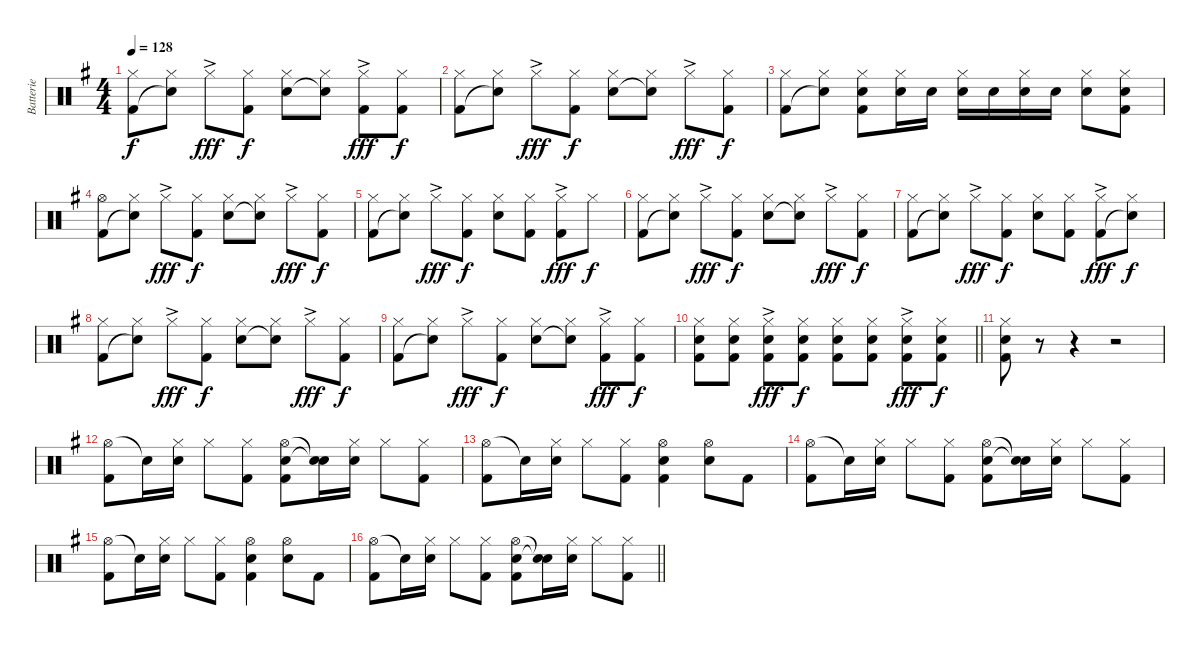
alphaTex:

\track ("Batterie" "Batterie") {instrument percussion}
\staff {score}
\articulation defaults
\ts (4 4)
\tempo 128
\clef neutral
\ks g
("Hi-Hat (closed)" "Kick (hit) 2").8{dy f} ("Hi-Hat (closed)" "Snare (hit)"{t}).8 "Hi-Hat (closed)"{ac}.8{dy fff} ("Hi-Hat (closed)" "Kick (hit) 2").8{dy f} ("Hi-Hat (closed)" "Snare (hit) 2").8 ("Hi-Hat (closed)" "Snare (hit)"{t}).8 ("Hi-Hat (closed)"{ac} "Kick (hit) 2").8{dy fff} ("Hi-Hat (closed)" "Kick (hit) 2").8{dy f} |
("Hi-Hat (closed)" "Kick (hit) 2").8 ("Hi-Hat (closed)" "Snare (hit)"{t}).8 "Hi-Hat (closed)"{ac}.8{dy fff} ("Hi-Hat (closed)" "Kick (hit) 2").8{dy f} ("Hi-Hat (closed)" "Snare (hit) 2").8 ("Hi-Hat (closed)" "Snare (hit)"{t}).8 "Hi-Hat (closed)"{ac}.8{dy fff} ("Hi-Hat (closed)" "Kick (hit) 2").8{dy f} |
("Hi-Hat (closed)" "Kick (hit) 2").8 ("Hi-Hat (closed)" "Snare (hit)"{t}).8 ("Hi-Hat (closed)" "Snare (hit) 2" "Kick (hit) 2").8 ("Hi-Hat (closed)" "Snare (hit) 2").16 "Snare (hit) 2".16 ("Hi-Hat (closed)" "Snare (hit) 2").16 "Snare (hit) 2".16 ("Hi-Hat (closed)" "Snare (hit) 2").16 "Snare (hit) 2".16 ("Hi-Hat (closed)" "Snare (hit) 2").8 ("Hi-Hat (closed)" "Snare (hit) 2" "Kick (hit) 2").8 |
("Hi-Hat (open)" "Kick (hit) 2").8 ("Hi-Hat (closed)" "Snare (hit)"{t}).8 "Hi-Hat (closed)"{ac}.8{dy fff} ("Hi-Hat (closed)" "Kick (hit) 2").8{dy f} ("Hi-Hat (closed)" "Snare (hit) 2").8 ("Hi-Hat (closed)" "Snare (hit)"{t}).8 "Hi-Hat (closed)"{ac}.8{dy fff} ("Hi-Hat (closed)" "Kick (hit) 2").8{dy f} |
("Hi-Hat (closed)" "Kick (hit) 2").8 ("Hi-Hat (closed)" "Snare (hit)"{t}).8 "Hi-Hat (closed)"{ac}.8{dy fff} ("Hi-Hat (closed)" "Kick (hit) 2").8{dy f} ("Hi-Hat (closed)" "Snare (hit) 2").8 ("Hi-Hat (closed)" "Kick (hit) 2").8 ("Hi-Hat (closed)"{ac} "Kick (hit) 2").8{dy fff} "Hi-Hat (closed)".8{dy f} |
("Hi-Hat (closed)" "Kick (hit) 2").8 ("Hi-Hat (closed)" "Snare (hit)"{t}).8 "Hi-Hat (closed)"{ac}.8{dy fff} ("Hi-Hat (closed)" "Kick (hit) 2").8{dy f} ("Hi-Hat (closed)" "Snare (hit) 2").8 ("Hi-Hat (closed)" "Snare (hit)"{t}).8 "Hi-Hat (closed)"{ac}.8{dy fff} ("Hi-Hat (closed)" "Kick (hit) 2").8{dy f} |
("Hi-Hat (closed)" "Kick (hit) 2").8 ("Hi-Hat (closed)" "Snare (hit)"{t}).8 "Hi-Hat (closed)"{ac}.8{dy fff} ("Hi-Hat (closed)" "Kick (hit) 2").8{dy f} ("Hi-Hat (closed)" "Snare (hit) 2").8 ("Hi-Hat (closed)" "Kick (hit) 2").8 ("Hi-Hat (closed)"{ac} "Kick (hit) 2").8{dy fff} ("Hi-Hat (closed)" "Snare (hit)"{t}).8{dy f} |
("Hi-Hat (closed)" "Kick (hit) 2").8 ("Hi-Hat (closed)" "Snare (hit)"{t}).8 "Hi-Hat (closed)"{ac}.8{dy fff} ("Hi-Hat (closed)" "Kick (hit) 2").8{dy f} ("Hi-Hat (closed)" "Snare (hit) 2").8 ("Hi-Hat (closed)" "Snare (hit)"{t}).8 "Hi-Hat (closed)"{ac}.8{dy fff} ("Hi-Hat (closed)" "Kick (hit) 2").8{dy f} |
("Hi-Hat (closed)" "Kick (hit) 2").8 ("Hi-Hat (closed)" "Snare (hit)"{t}).8 "Hi-Hat (closed)"{ac}.8{dy fff} ("Hi-Hat (closed)" "Kick (hit) 2").8{dy f} ("Hi-Hat (closed)" "Snare (hit) 2").8 ("Hi-Hat (closed)" "Snare (hit)"{t}).8 ("Hi-Hat (closed)"{ac} "Kick (hit) 2").8{dy fff} ("Hi-Hat (closed)" "Kick (hit) 2").8{dy f} |
\barLineRight lightlight
("Hi-Hat (closed)" "Snare (hit) 2" "Kick (hit) 2").8 ("Hi-Hat (closed)" "Snare (hit) 2" "Kick (hit) 2").8 ("Hi-Hat (closed)"{ac} "Snare (hit) 2" "Kick (hit) 2").8{dy fff} ("Hi-Hat (closed)" "Snare (hit) 2" "Kick (hit) 2").8{dy f} ("Hi-Hat (closed)" "Snare (hit) 2" "Kick (hit) 2").8 ("Hi-Hat (closed)" "Snare (hit) 2" "Kick (hit) 2").8 ("Hi-Hat (closed)"{ac} "Snare (hit) 2" "Kick (hit) 2").8{dy fff} ("Hi-Hat (closed)" "Snare (hit) 2" "Kick (hit) 2").8{dy f} |
("Hi-Hat (closed)" "Snare (hit) 2" "Kick (hit) 2").8 r.8 r.4 r.2 |
("Hi-Hat (open)" "Kick (hit) 2").8 "Snare (hit)"{t}.16 ("Hi-Hat (closed)" "Snare (hit) 2").16 "Hi-Hat (closed)".8 ("Hi-Hat (closed)" "Kick (hit) 2").8 ("Hi-Hat (open)" "Snare (hit) 2" "Kick (hit) 2").8 ("Snare (hit)"{t} "Snare (hit)"{t}).16 ("Hi-Hat (closed)" "Snare (hit) 2").16 "Hi-Hat (closed)".8 ("Hi-Hat (closed)" "Kick (hit) 2").8 |
("Hi-Hat (open)" "Kick (hit) 2").8 "Snare (hit)"{t}.16 ("Hi-Hat (closed)" "Snare (hit) 2").16 "Hi-Hat (closed)".8 ("Hi-Hat (closed)" "Kick (hit) 2").8 ("Hi-Hat (open)" "Snare (hit) 2" "Kick (hit) 2").4 ("Hi-Hat (open)" "Snare (hit) 2").8 "Kick (hit) 2".8 |
("Hi-Hat (open)" "Kick (hit) 2").8 "Snare (hit)"{t}.16 ("Hi-Hat (closed)" "Snare (hit) 2").16 "Hi-Hat (closed)".8 ("Hi-Hat (closed)" "Kick (hit) 2").8 ("Hi-Hat (open)" "Snare (hit) 2" "Kick (hit) 2").8 ("Snare (hit)"{t} "Snare (hit)"{t}).16 ("Hi-Hat (closed)" "Snare (hit) 2").16 "Hi-Hat (closed)".8 ("Hi-Hat (closed)" "Kick (hit) 2").8 |
("Hi-Hat (open)" "Kick (hit) 2").8 "Snare (hit)"{t}.16 ("Hi-Hat (closed)" "Snare (hit) 2").16 "Hi-Hat (closed)".8 ("Hi-Hat (closed)" "Kick (hit) 2").8 ("Hi-Hat (open)" "Snare (hit) 2" "Kick (hit) 2").4 ("Hi-Hat (open)" "Snare (hit) 2").8 "Kick (hit) 2".8 |
\barLineRight lightlight
("Hi-Hat (open)" "Kick (hit) 2").8 "Snare (hit)"{t}.16 ("Hi-Hat (closed)" "Snare (hit) 2").16 "Hi-Hat (closed)".8 ("Hi-Hat (closed)" "Kick (hit) 2").8 ("Hi-Hat (open)" "Snare (hit) 2" "Kick (hit) 2").8 ("Snare (hit)"{t} "Snare (hit)"{t}).16 ("Hi-Hat (closed)" "Snare (hit) 2").16 "Hi-Hat (closed)".8 ("Hi-Hat (closed)" "Kick (hit) 2").8
